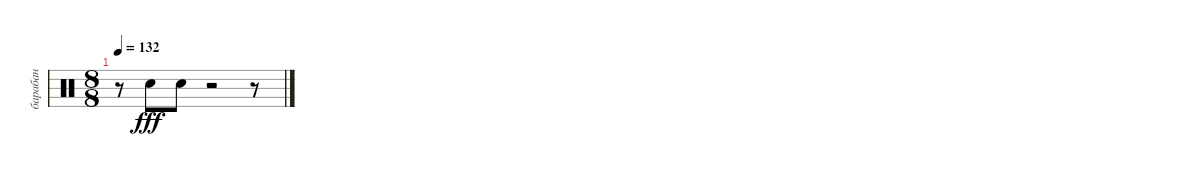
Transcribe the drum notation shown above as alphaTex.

\track ("барабан" "барабан") {instrument percussion}
\staff {score}
\articulation defaults
\ts (8 8)
\tempo 132
\clef neutral
\ks c
r.8{dy fff} "Snare (hit) 2".8 "Snare (hit) 2".8 r.2 r.8
